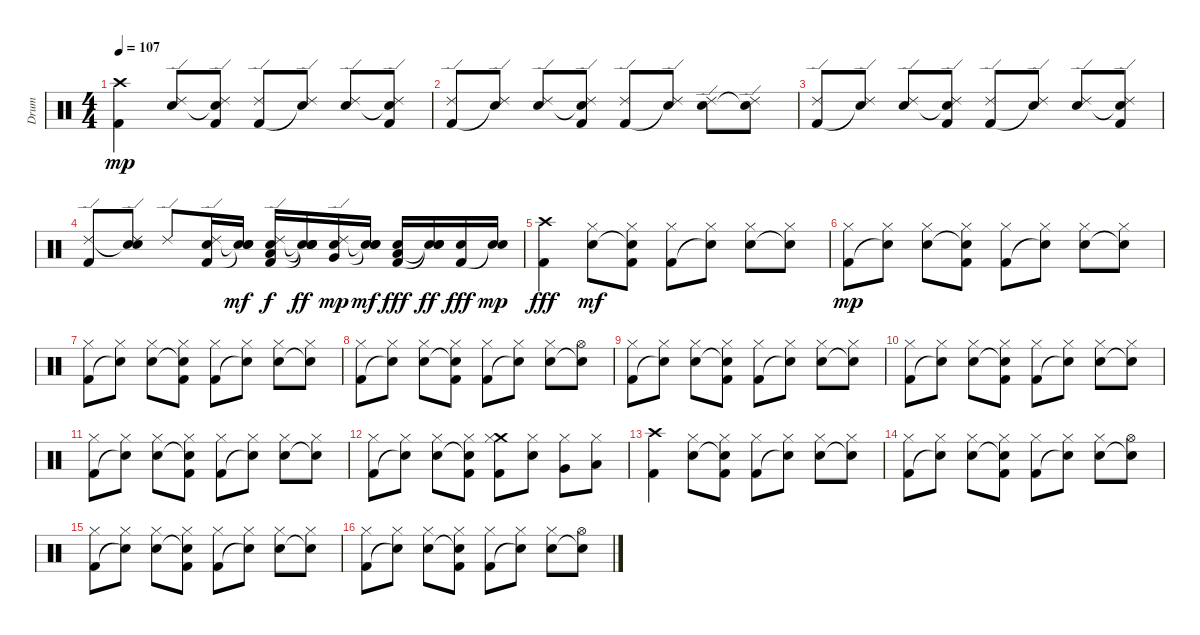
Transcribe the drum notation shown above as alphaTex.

\track ("Drum" "Drum") {instrument percussion}
\staff {score}
\articulation defaults
\ts (4 4)
\tempo 107
\clef neutral
\ks c
("Kick (hit) 2" "Crash high (hit)").4{dy mp} ("Electric Snare (hit)" "Ride (edge) 2").8 ("Snare (hit)"{t} "Kick (hit) 2" "Ride (edge) 2").8 ("Kick (hit) 2" "Ride (edge) 2").8 ("Snare (hit)"{t} "Ride (edge) 2").8 ("Electric Snare (hit)" "Ride (edge) 2").8 ("Snare (hit)"{t} "Kick (hit) 2" "Ride (edge) 2").8 |
("Kick (hit) 2" "Ride (edge) 2").8 ("Snare (hit)"{t} "Ride (edge) 2").8 ("Electric Snare (hit)" "Ride (edge) 2").8 ("Snare (hit)"{t} "Kick (hit) 2" "Ride (edge) 2").8 ("Kick (hit) 2" "Ride (edge) 2").8 ("Snare (hit)"{t} "Ride (edge) 2").8 ("Electric Snare (hit)" "Ride (edge) 2").8 ("Snare (hit)"{t} "Ride (edge) 2").8 |
("Kick (hit) 2" "Ride (edge) 2").8 ("Snare (hit)"{t} "Ride (edge) 2").8 ("Electric Snare (hit)" "Ride (edge) 2").8 ("Snare (hit)"{t} "Kick (hit) 2" "Ride (edge) 2").8 ("Kick (hit) 2" "Ride (edge) 2").8 ("Snare (hit)"{t} "Ride (edge) 2").8 ("Electric Snare (hit)" "Ride (edge) 2").8 ("Snare (hit)"{t} "Kick (hit) 2" "Ride (edge) 2").8 |
("Kick (hit) 2" "Ride (edge) 2").8 ("Electric Snare (hit)" "Snare (hit)"{t} "Ride (edge) 2").8 "Ride (edge) 2".8 ("Electric Snare (hit)" "Kick (hit) 2" "Ride (edge) 2").16 ("Electric Snare (hit)" "Snare (hit)"{t} "Snare (hit)"{t}).16{dy mf} ("Electric Snare (hit)" "Kick (hit) 2" "Ride (edge) 2" "Low Floor Tom (hit)").16{dy f} ("Electric Snare (hit)" "Snare (hit)"{t} "Snare (hit)"{t} "Snare (hit)"{t}).16{dy ff} ("Electric Snare (hit)" "Ride (edge) 2" "Very Low Tom (hit)").16{dy mp} ("Electric Snare (hit)" "Snare (hit)"{t} "Snare (hit)"{t}).16{dy mf} ("Electric Snare (hit)" "Kick (hit) 2" "Low Floor Tom (hit)").16{dy fff} ("Electric Snare (hit)" "Snare (hit)"{t} "Snare (hit)"{t}).16{dy ff} ("Electric Snare (hit)" "Kick (hit) 2").16{dy fff} ("Electric Snare (hit)" "Snare (hit)"{t}).16{dy mp} |
("Kick (hit) 2" "Crash high (hit)").4{dy fff} ("Electric Snare (hit)" "Hi-Hat (closed)").8{txt "" dy mf} ("Snare (hit)"{t} "Kick (hit) 2" "Hi-Hat (closed)").8 ("Kick (hit) 2" "Hi-Hat (closed)").8 ("Snare (hit)"{t} "Hi-Hat (closed)").8 ("Electric Snare (hit)" "Hi-Hat (closed)").8 ("Snare (hit)"{t} "Hi-Hat (closed)").8 |
("Kick (hit) 2" "Hi-Hat (closed)").8{txt "" dy mp} ("Snare (hit)"{t} "Hi-Hat (closed)").8 ("Electric Snare (hit)" "Hi-Hat (closed)").8 ("Snare (hit)"{t} "Kick (hit) 2" "Hi-Hat (closed)").8 ("Kick (hit) 2" "Hi-Hat (closed)").8 ("Snare (hit)"{t} "Hi-Hat (closed)").8 ("Electric Snare (hit)" "Hi-Hat (closed)").8 ("Snare (hit)"{t} "Hi-Hat (closed)").8 |
("Kick (hit) 2" "Hi-Hat (closed)").8{txt ""} ("Snare (hit)"{t} "Hi-Hat (closed)").8 ("Electric Snare (hit)" "Hi-Hat (closed)").8 ("Snare (hit)"{t} "Kick (hit) 2" "Hi-Hat (closed)").8 ("Kick (hit) 2" "Hi-Hat (closed)").8 ("Snare (hit)"{t} "Hi-Hat (closed)").8 ("Electric Snare (hit)" "Hi-Hat (closed)").8 ("Snare (hit)"{t} "Hi-Hat (closed)").8 |
("Kick (hit) 2" "Hi-Hat (closed)").8{txt ""} ("Snare (hit)"{t} "Hi-Hat (closed)").8 ("Electric Snare (hit)" "Hi-Hat (closed)").8 ("Snare (hit)"{t} "Kick (hit) 2" "Hi-Hat (closed)").8 ("Kick (hit) 2" "Hi-Hat (closed)").8 ("Snare (hit)"{t} "Hi-Hat (closed)").8 ("Electric Snare (hit)" "Hi-Hat (closed)").8 ("Snare (hit)"{t} "Hi-Hat (open)").8 |
("Kick (hit) 2" "Hi-Hat (closed)").8{txt ""} ("Snare (hit)"{t} "Hi-Hat (closed)").8 ("Electric Snare (hit)" "Hi-Hat (closed)").8 ("Snare (hit)"{t} "Kick (hit) 2" "Hi-Hat (closed)").8 ("Kick (hit) 2" "Hi-Hat (closed)").8 ("Snare (hit)"{t} "Hi-Hat (closed)").8 ("Electric Snare (hit)" "Hi-Hat (closed)").8 ("Snare (hit)"{t} "Hi-Hat (closed)").8 |
("Kick (hit) 2" "Hi-Hat (closed)").8{txt ""} ("Snare (hit)"{t} "Hi-Hat (closed)").8 ("Electric Snare (hit)" "Hi-Hat (closed)").8 ("Snare (hit)"{t} "Kick (hit) 2" "Hi-Hat (closed)").8 ("Kick (hit) 2" "Hi-Hat (closed)").8 ("Snare (hit)"{t} "Hi-Hat (closed)").8 ("Electric Snare (hit)" "Hi-Hat (closed)").8 ("Snare (hit)"{t} "Hi-Hat (closed)").8 |
("Kick (hit) 2" "Hi-Hat (closed)").8{txt ""} ("Snare (hit)"{t} "Hi-Hat (closed)").8 ("Electric Snare (hit)" "Hi-Hat (closed)").8 ("Snare (hit)"{t} "Kick (hit) 2" "Hi-Hat (closed)").8 ("Kick (hit) 2" "Hi-Hat (closed)").8 ("Snare (hit)"{t} "Hi-Hat (closed)").8 ("Electric Snare (hit)" "Hi-Hat (closed)").8 ("Snare (hit)"{t} "Hi-Hat (closed)").8 |
("Kick (hit) 2" "Hi-Hat (closed)").8 ("Snare (hit)"{t} "Hi-Hat (closed)").8 ("Electric Snare (hit)" "Hi-Hat (closed)").8 ("Snare (hit)"{t} "Kick (hit) 2" "Hi-Hat (closed)").8 ("Crash medium (hit)" "Kick (hit) 2" "Hi-Hat (closed)").8 ("Electric Snare (hit)" "Hi-Hat (closed)").8 ("Hi-Hat (closed)" "Very Low Tom (hit)").8 ("Hi-Hat (closed)" "Low Floor Tom (hit)").8 |
("Kick (hit) 2" "Crash high (hit)").4{txt ""} ("Electric Snare (hit)" "Hi-Hat (closed)").8 ("Snare (hit)"{t} "Kick (hit) 2" "Hi-Hat (closed)").8 ("Kick (hit) 2" "Hi-Hat (closed)").8 ("Snare (hit)"{t} "Hi-Hat (closed)").8 ("Electric Snare (hit)" "Hi-Hat (closed)").8 ("Snare (hit)"{t} "Hi-Hat (closed)").8 |
("Kick (hit) 2" "Hi-Hat (closed)").8{txt ""} ("Snare (hit)"{t} "Hi-Hat (closed)").8 ("Electric Snare (hit)" "Hi-Hat (closed)").8 ("Snare (hit)"{t} "Kick (hit) 2" "Hi-Hat (closed)").8 ("Kick (hit) 2" "Hi-Hat (closed)").8 ("Snare (hit)"{t} "Hi-Hat (closed)").8 ("Electric Snare (hit)" "Hi-Hat (closed)").8 ("Snare (hit)"{t} "Hi-Hat (open)").8 |
("Kick (hit) 2" "Hi-Hat (closed)").8{txt ""} ("Snare (hit)"{t} "Hi-Hat (closed)").8 ("Electric Snare (hit)" "Hi-Hat (closed)").8 ("Snare (hit)"{t} "Kick (hit) 2" "Hi-Hat (closed)").8 ("Kick (hit) 2" "Hi-Hat (closed)").8 ("Snare (hit)"{t} "Hi-Hat (closed)").8 ("Electric Snare (hit)" "Hi-Hat (closed)").8 ("Snare (hit)"{t} "Hi-Hat (closed)").8 |
("Kick (hit) 2" "Hi-Hat (closed)").8{txt ""} ("Snare (hit)"{t} "Hi-Hat (closed)").8 ("Electric Snare (hit)" "Hi-Hat (closed)").8 ("Snare (hit)"{t} "Kick (hit) 2" "Hi-Hat (closed)").8 ("Kick (hit) 2" "Hi-Hat (closed)").8 ("Snare (hit)"{t} "Hi-Hat (closed)").8 ("Electric Snare (hit)" "Hi-Hat (closed)").8 ("Snare (hit)"{t} "Hi-Hat (open)").8
